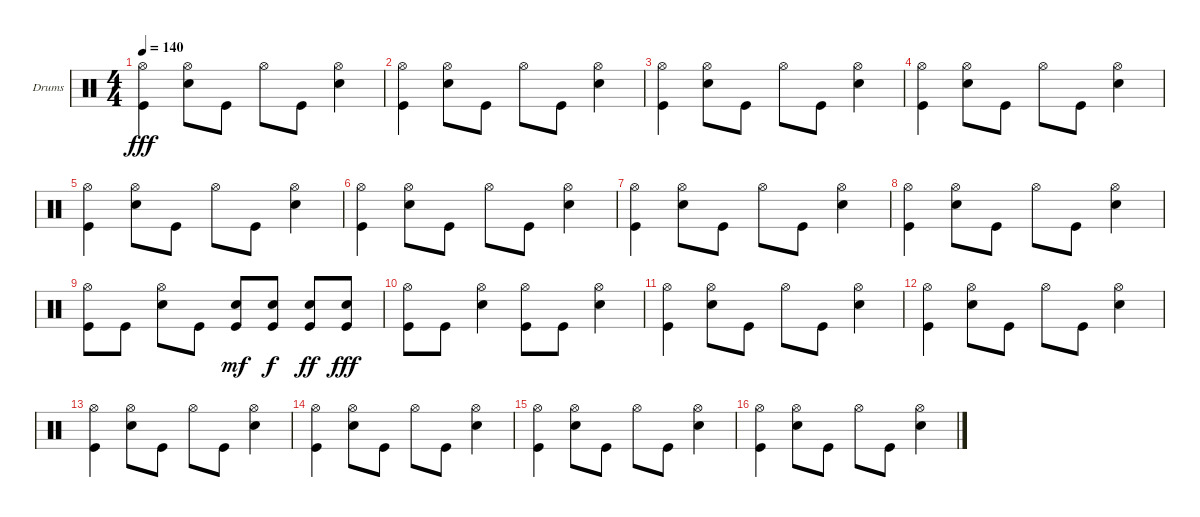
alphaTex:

\bracketExtendMode groupsimilarinstruments
\firstSystemTrackNameOrientation horizontal
\otherSystemsTrackNameOrientation horizontal
\track ("Drumkit" "Drums") {instrument percussion}
\staff {score}
\articulation defaults
\ts (4 4)
\tempo 140
\clef neutral
\ks c
("Kick (hit)" "Hi-Hat (open)").4{dy fff} ("Snare (hit) 2" "Hi-Hat (open)").8 "Kick (hit)".8 "Hi-Hat (open)".8 "Kick (hit)".8 ("Snare (hit) 2" "Hi-Hat (open)").4 |
("Kick (hit)" "Hi-Hat (open)").4 ("Snare (hit) 2" "Hi-Hat (open)").8 "Kick (hit)".8 "Hi-Hat (open)".8 "Kick (hit)".8 ("Snare (hit) 2" "Hi-Hat (open)").4 |
("Kick (hit)" "Hi-Hat (open)").4 ("Snare (hit) 2" "Hi-Hat (open)").8 "Kick (hit)".8 "Hi-Hat (open)".8 "Kick (hit)".8 ("Snare (hit) 2" "Hi-Hat (open)").4 |
("Kick (hit)" "Hi-Hat (open)").4 ("Snare (hit) 2" "Hi-Hat (open)").8 "Kick (hit)".8 "Hi-Hat (open)".8 "Kick (hit)".8 ("Snare (hit) 2" "Hi-Hat (open)").4 |
("Kick (hit)" "Hi-Hat (open)").4 ("Snare (hit) 2" "Hi-Hat (open)").8 "Kick (hit)".8 "Hi-Hat (open)".8 "Kick (hit)".8 ("Snare (hit) 2" "Hi-Hat (open)").4 |
("Kick (hit)" "Hi-Hat (open)").4 ("Snare (hit) 2" "Hi-Hat (open)").8 "Kick (hit)".8 "Hi-Hat (open)".8 "Kick (hit)".8 ("Snare (hit) 2" "Hi-Hat (open)").4 |
("Kick (hit)" "Hi-Hat (open)").4 ("Snare (hit) 2" "Hi-Hat (open)").8 "Kick (hit)".8 "Hi-Hat (open)".8 "Kick (hit)".8 ("Snare (hit) 2" "Hi-Hat (open)").4 |
("Kick (hit)" "Hi-Hat (open)").4 ("Snare (hit) 2" "Hi-Hat (open)").8 "Kick (hit)".8 "Hi-Hat (open)".8 "Kick (hit)".8 ("Snare (hit) 2" "Hi-Hat (open)").4 |
("Kick (hit)" "Hi-Hat (open)").8 "Kick (hit)".8 ("Snare (hit) 2" "Hi-Hat (open)").8 "Kick (hit)".8 ("Kick (hit)" "Snare (hit) 2").8{dy mf} ("Kick (hit)" "Snare (hit) 2").8{dy f} ("Snare (hit) 2" "Kick (hit)").8{dy ff} ("Kick (hit)" "Snare (hit) 2").8{dy fff} |
("Kick (hit)" "Hi-Hat (open)").8 "Kick (hit)".8 ("Snare (hit) 2" "Hi-Hat (open)").4 ("Kick (hit)" "Hi-Hat (open)").8 "Kick (hit)".8 ("Snare (hit) 2" "Hi-Hat (open)").4 |
("Kick (hit)" "Hi-Hat (open)").4 ("Snare (hit) 2" "Hi-Hat (open)").8 "Kick (hit)".8 "Hi-Hat (open)".8 "Kick (hit)".8 ("Snare (hit) 2" "Hi-Hat (open)").4 |
("Kick (hit)" "Hi-Hat (open)").4 ("Snare (hit) 2" "Hi-Hat (open)").8 "Kick (hit)".8 "Hi-Hat (open)".8 "Kick (hit)".8 ("Snare (hit) 2" "Hi-Hat (open)").4 |
("Kick (hit)" "Hi-Hat (open)").4 ("Snare (hit) 2" "Hi-Hat (open)").8 "Kick (hit)".8 "Hi-Hat (open)".8 "Kick (hit)".8 ("Snare (hit) 2" "Hi-Hat (open)").4 |
("Kick (hit)" "Hi-Hat (open)").4 ("Snare (hit) 2" "Hi-Hat (open)").8 "Kick (hit)".8 "Hi-Hat (open)".8 "Kick (hit)".8 ("Snare (hit) 2" "Hi-Hat (open)").4 |
("Kick (hit)" "Hi-Hat (open)").4 ("Snare (hit) 2" "Hi-Hat (open)").8 "Kick (hit)".8 "Hi-Hat (open)".8 "Kick (hit)".8 ("Snare (hit) 2" "Hi-Hat (open)").4 |
("Kick (hit)" "Hi-Hat (open)").4 ("Snare (hit) 2" "Hi-Hat (open)").8 "Kick (hit)".8 "Hi-Hat (open)".8 "Kick (hit)".8 ("Snare (hit) 2" "Hi-Hat (open)").4
